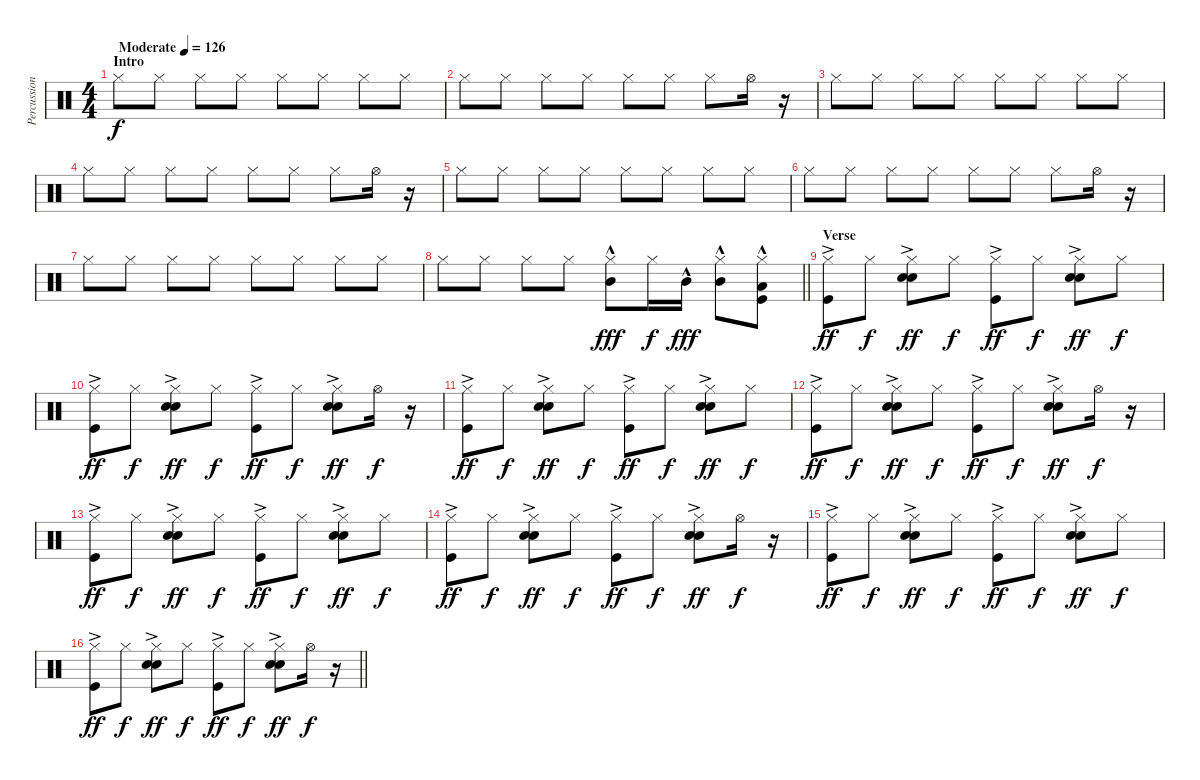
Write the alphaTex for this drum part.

\track ("Percussion" "Percussion") {instrument percussion}
\staff {score}
\articulation defaults
\ts (4 4)
\section ("" "Intro")
\tempo (126 "Moderate")
\clef neutral
\ks c "Hi-Hat (closed)".8{dy f} "Hi-Hat (closed)".8 "Hi-Hat (closed)".8 "Hi-Hat (closed)".8 "Hi-Hat (closed)".8 "Hi-Hat (closed)".8 "Hi-Hat (closed)".8 "Hi-Hat (closed)".8
|
"Hi-Hat (closed)".8 "Hi-Hat (closed)".8 "Hi-Hat (closed)".8 "Hi-Hat (closed)".8 "Hi-Hat (closed)".8 "Hi-Hat (closed)".8 "Hi-Hat (closed)".8 "Hi-Hat (open)".16 r.16 |
"Hi-Hat (closed)".8 "Hi-Hat (closed)".8 "Hi-Hat (closed)".8 "Hi-Hat (closed)".8 "Hi-Hat (closed)".8 "Hi-Hat (closed)".8 "Hi-Hat (closed)".8 "Hi-Hat (closed)".8 |
"Hi-Hat (closed)".8 "Hi-Hat (closed)".8 "Hi-Hat (closed)".8 "Hi-Hat (closed)".8 "Hi-Hat (closed)".8 "Hi-Hat (closed)".8 "Hi-Hat (closed)".8 "Hi-Hat (open)".16 r.16 |
"Hi-Hat (closed)".8 "Hi-Hat (closed)".8 "Hi-Hat (closed)".8 "Hi-Hat (closed)".8 "Hi-Hat (closed)".8 "Hi-Hat (closed)".8 "Hi-Hat (closed)".8 "Hi-Hat (closed)".8 |
"Hi-Hat (closed)".8 "Hi-Hat (closed)".8 "Hi-Hat (closed)".8 "Hi-Hat (closed)".8 "Hi-Hat (closed)".8 "Hi-Hat (closed)".8 "Hi-Hat (closed)".8 "Hi-Hat (open)".16 r.16 |
"Hi-Hat (closed)".8 "Hi-Hat (closed)".8 "Hi-Hat (closed)".8 "Hi-Hat (closed)".8 "Hi-Hat (closed)".8 "Hi-Hat (closed)".8 "Hi-Hat (closed)".8 "Hi-Hat (closed)".8 |
\barLineRight lightlight "Hi-Hat (closed)".8 "Hi-Hat (closed)".8 "Hi-Hat (closed)".8 "Hi-Hat (closed)".8
("Hi-Hat (closed)" "Mid Tom (hit)"{hac}).8{dy fff} "Hi-Hat (closed)".16{dy f} "Mid Tom (hit)"{hac}.16{dy fff} ("Hi-Hat (closed)" "Mid Tom (hit)"{hac}).8 ("Hi-Hat (closed)" "Low Tom (hit)"{hac} "Kick (hit)").8 |
\section ("" "Verse")
("Hi-Hat (closed)" "Kick (hit)"{ac}).8{dy ff} "Hi-Hat (closed)".8{dy f} ("Hi-Hat (closed)" "Hand Clap (hit)"{ac} "Snare (hit) 2").8{dy ff} "Hi-Hat (closed)".8{dy f} ("Hi-Hat (closed)" "Kick (hit)"{ac}).8{dy ff} "Hi-Hat (closed)".8{dy f} ("Hi-Hat (closed)" "Hand Clap (hit)"{ac} "Snare (hit) 2").8{dy ff} "Hi-Hat (closed)".8{dy f} |
("Hi-Hat (closed)" "Kick (hit)"{ac}).8{dy ff} "Hi-Hat (closed)".8{dy f} ("Hi-Hat (closed)" "Hand Clap (hit)"{ac} "Snare (hit) 2").8{dy ff} "Hi-Hat (closed)".8{dy f} ("Hi-Hat (closed)" "Kick (hit)"{ac}).8{dy ff} "Hi-Hat (closed)".8{dy f} ("Hi-Hat (closed)" "Hand Clap (hit)"{ac} "Snare (hit) 2").8{dy ff} "Hi-Hat (open)".16{dy f} r.16 |
("Hi-Hat (closed)" "Kick (hit)"{ac}).8{dy ff} "Hi-Hat (closed)".8{dy f} ("Hi-Hat (closed)" "Hand Clap (hit)"{ac} "Snare (hit) 2").8{dy ff} "Hi-Hat (closed)".8{dy f} ("Hi-Hat (closed)" "Kick (hit)"{ac}).8{dy ff} "Hi-Hat (closed)".8{dy f} ("Hi-Hat (closed)" "Hand Clap (hit)"{ac} "Snare (hit) 2").8{dy ff} "Hi-Hat (closed)".8{dy f} |
("Hi-Hat (closed)" "Kick (hit)"{ac}).8{dy ff} "Hi-Hat (closed)".8{dy f} ("Hi-Hat (closed)" "Hand Clap (hit)"{ac} "Snare (hit) 2").8{dy ff} "Hi-Hat (closed)".8{dy f} ("Hi-Hat (closed)" "Kick (hit)"{ac}).8{dy ff} "Hi-Hat (closed)".8{dy f} ("Hi-Hat (closed)" "Hand Clap (hit)"{ac} "Snare (hit) 2").8{dy ff} "Hi-Hat (open)".16{dy f} r.16 |
("Hi-Hat (closed)" "Kick (hit)"{ac}).8{dy ff} "Hi-Hat (closed)".8{dy f} ("Hi-Hat (closed)" "Hand Clap (hit)"{ac} "Snare (hit) 2").8{dy ff} "Hi-Hat (closed)".8{dy f} ("Hi-Hat (closed)" "Kick (hit)"{ac}).8{dy ff} "Hi-Hat (closed)".8{dy f} ("Hi-Hat (closed)" "Hand Clap (hit)"{ac} "Snare (hit) 2").8{dy ff} "Hi-Hat (closed)".8{dy f} |
("Hi-Hat (closed)" "Kick (hit)"{ac}).8{dy ff} "Hi-Hat (closed)".8{dy f} ("Hi-Hat (closed)" "Hand Clap (hit)"{ac} "Snare (hit) 2").8{dy ff} "Hi-Hat (closed)".8{dy f} ("Hi-Hat (closed)" "Kick (hit)"{ac}).8{dy ff} "Hi-Hat (closed)".8{dy f} ("Hi-Hat (closed)" "Hand Clap (hit)"{ac} "Snare (hit) 2").8{dy ff} "Hi-Hat (open)".16{dy f} r.16 |
("Hi-Hat (closed)" "Kick (hit)"{ac}).8{dy ff} "Hi-Hat (closed)".8{dy f} ("Hi-Hat (closed)" "Hand Clap (hit)"{ac} "Snare (hit) 2").8{dy ff} "Hi-Hat (closed)".8{dy f} ("Hi-Hat (closed)" "Kick (hit)"{ac}).8{dy ff} "Hi-Hat (closed)".8{dy f} ("Hi-Hat (closed)" "Hand Clap (hit)"{ac} "Snare (hit) 2").8{dy ff} "Hi-Hat (closed)".8{dy f} |
\barLineRight lightlight
("Hi-Hat (closed)" "Kick (hit)"{ac}).8{dy ff} "Hi-Hat (closed)".8{dy f} ("Hi-Hat (closed)" "Hand Clap (hit)"{ac} "Snare (hit) 2").8{dy ff} "Hi-Hat (closed)".8{dy f} ("Hi-Hat (closed)" "Kick (hit)"{ac}).8{dy ff} "Hi-Hat (closed)".8{dy f} ("Hi-Hat (closed)" "Hand Clap (hit)"{ac} "Snare (hit) 2").8{dy ff} "Hi-Hat (open)".16{dy f} r.16
